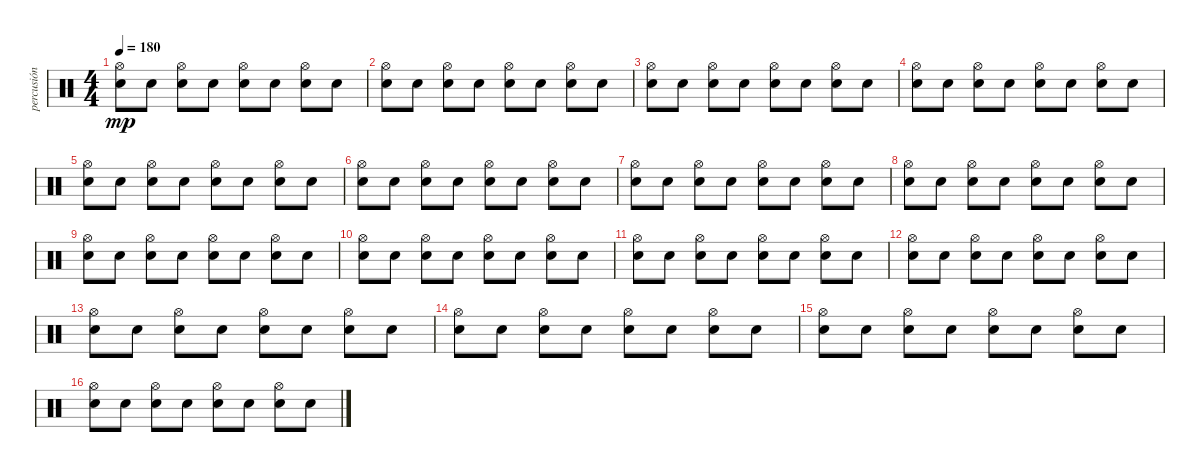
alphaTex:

\track ("percusión" "percusión") {instrument percussion}
\staff {score}
\articulation defaults
\ts (4 4)
\tempo 180
\clef neutral
\ks c
("Snare (hit) 2" "Hi-Hat (open)").8{dy mp} "Snare (hit) 2".8 ("Hi-Hat (open)" "Snare (hit) 2").8 "Snare (hit) 2".8 ("Snare (hit) 2" "Hi-Hat (open)").8 "Snare (hit) 2".8 ("Hi-Hat (open)" "Snare (hit) 2").8 "Snare (hit) 2".8 |
("Snare (hit) 2" "Hi-Hat (open)").8 "Snare (hit) 2".8 ("Hi-Hat (open)" "Snare (hit) 2").8 "Snare (hit) 2".8 ("Snare (hit) 2" "Hi-Hat (open)").8 "Snare (hit) 2".8 ("Snare (hit) 2" "Hi-Hat (open)").8 "Snare (hit) 2".8 |
("Snare (hit) 2" "Hi-Hat (open)").8 "Snare (hit) 2".8 ("Hi-Hat (open)" "Snare (hit) 2").8 "Snare (hit) 2".8 ("Snare (hit) 2" "Hi-Hat (open)").8 "Snare (hit) 2".8 ("Hi-Hat (open)" "Snare (hit) 2").8 "Snare (hit) 2".8 |
("Snare (hit) 2" "Hi-Hat (open)").8 "Snare (hit) 2".8 ("Hi-Hat (open)" "Snare (hit) 2").8 "Snare (hit) 2".8 ("Snare (hit) 2" "Hi-Hat (open)").8 "Snare (hit) 2".8 ("Snare (hit) 2" "Hi-Hat (open)").8 "Snare (hit) 2".8 |
("Snare (hit) 2" "Hi-Hat (open)").8 "Snare (hit) 2".8 ("Hi-Hat (open)" "Snare (hit) 2").8 "Snare (hit) 2".8 ("Snare (hit) 2" "Hi-Hat (open)").8 "Snare (hit) 2".8 ("Hi-Hat (open)" "Snare (hit) 2").8 "Snare (hit) 2".8 |
("Snare (hit) 2" "Hi-Hat (open)").8 "Snare (hit) 2".8 ("Hi-Hat (open)" "Snare (hit) 2").8 "Snare (hit) 2".8 ("Snare (hit) 2" "Hi-Hat (open)").8 "Snare (hit) 2".8 ("Snare (hit) 2" "Hi-Hat (open)").8 "Snare (hit) 2".8 |
("Snare (hit) 2" "Hi-Hat (open)").8 "Snare (hit) 2".8 ("Hi-Hat (open)" "Snare (hit) 2").8 "Snare (hit) 2".8 ("Snare (hit) 2" "Hi-Hat (open)").8 "Snare (hit) 2".8 ("Hi-Hat (open)" "Snare (hit) 2").8 "Snare (hit) 2".8 |
("Snare (hit) 2" "Hi-Hat (open)").8 "Snare (hit) 2".8 ("Hi-Hat (open)" "Snare (hit) 2").8 "Snare (hit) 2".8 ("Snare (hit) 2" "Hi-Hat (open)").8 "Snare (hit) 2".8 ("Snare (hit) 2" "Hi-Hat (open)").8 "Snare (hit) 2".8 |
("Snare (hit) 2" "Hi-Hat (open)").8 "Snare (hit) 2".8 ("Hi-Hat (open)" "Snare (hit) 2").8 "Snare (hit) 2".8 ("Snare (hit) 2" "Hi-Hat (open)").8 "Snare (hit) 2".8 ("Hi-Hat (open)" "Snare (hit) 2").8 "Snare (hit) 2".8 |
("Snare (hit) 2" "Hi-Hat (open)").8 "Snare (hit) 2".8 ("Hi-Hat (open)" "Snare (hit) 2").8 "Snare (hit) 2".8 ("Snare (hit) 2" "Hi-Hat (open)").8 "Snare (hit) 2".8 ("Snare (hit) 2" "Hi-Hat (open)").8 "Snare (hit) 2".8 |
("Snare (hit) 2" "Hi-Hat (open)").8 "Snare (hit) 2".8 ("Hi-Hat (open)" "Snare (hit) 2").8 "Snare (hit) 2".8 ("Snare (hit) 2" "Hi-Hat (open)").8 "Snare (hit) 2".8 ("Hi-Hat (open)" "Snare (hit) 2").8 "Snare (hit) 2".8 |
("Snare (hit) 2" "Hi-Hat (open)").8 "Snare (hit) 2".8 ("Snare (hit) 2" "Hi-Hat (open)").8 "Snare (hit) 2".8 ("Hi-Hat (open)" "Snare (hit) 2").8 "Snare (hit) 2".8 ("Hi-Hat (open)" "Snare (hit) 2").8 "Snare (hit) 2".8 |
("Hi-Hat (open)" "Snare (hit) 2").8 "Snare (hit) 2".8 ("Snare (hit) 2" "Hi-Hat (open)").8 "Snare (hit) 2".8 ("Hi-Hat (open)" "Snare (hit) 2").8 "Snare (hit) 2".8 ("Snare (hit) 2" "Hi-Hat (open)").8 "Snare (hit) 2".8 |
("Snare (hit) 2" "Hi-Hat (open)").8 "Snare (hit) 2".8 ("Hi-Hat (open)" "Snare (hit) 2").8 "Snare (hit) 2".8 ("Snare (hit) 2" "Hi-Hat (open)").8 "Snare (hit) 2".8 ("Snare (hit) 2" "Hi-Hat (open)").8 "Snare (hit) 2".8 |
("Snare (hit) 2" "Hi-Hat (open)").8 "Snare (hit) 2".8 ("Hi-Hat (open)" "Snare (hit) 2").8 "Snare (hit) 2".8 ("Snare (hit) 2" "Hi-Hat (open)").8 "Snare (hit) 2".8 ("Hi-Hat (open)" "Snare (hit) 2").8 "Snare (hit) 2".8 |
("Snare (hit) 2" "Hi-Hat (open)").8 "Snare (hit) 2".8 ("Hi-Hat (open)" "Snare (hit) 2").8 "Snare (hit) 2".8 ("Snare (hit) 2" "Hi-Hat (open)").8 "Snare (hit) 2".8 ("Snare (hit) 2" "Hi-Hat (open)").8 "Snare (hit) 2".8
